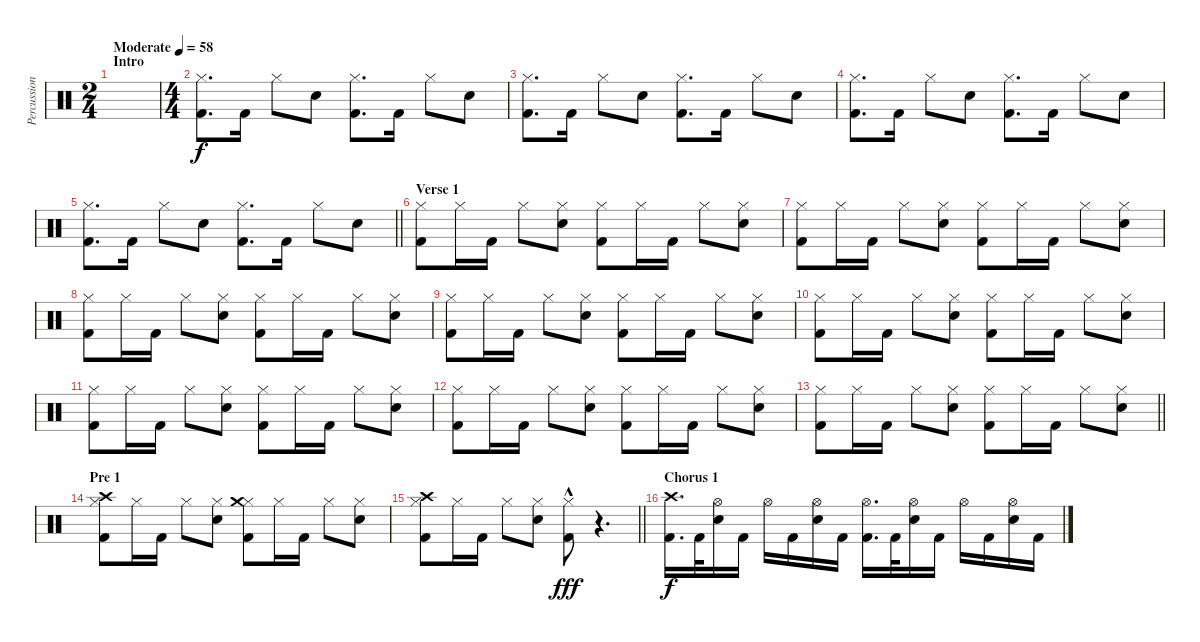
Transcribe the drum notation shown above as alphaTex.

\track ("Percussion 1" "Percussion") {instrument percussion}
\staff {score}
\articulation defaults
\ts (2 4)
\section ("" "Intro")
\tempo (58 "Moderate")
\clef neutral
\ks c
|
\ts (4 4)
("Hi-Hat (closed)" "Kick (hit) 2").8{d} "Kick (hit) 2".16 "Hi-Hat (closed)".8 "Snare (hit) 2".8 ("Hi-Hat (closed)" "Kick (hit) 2").8{d} "Kick (hit) 2".16 "Hi-Hat (closed)".8 "Snare (hit) 2".8 |
("Hi-Hat (closed)" "Kick (hit) 2").8{d} "Kick (hit) 2".16 "Hi-Hat (closed)".8 "Snare (hit) 2".8 ("Hi-Hat (closed)" "Kick (hit) 2").8{d} "Kick (hit) 2".16 "Hi-Hat (closed)".8 "Snare (hit) 2".8 |
("Hi-Hat (closed)" "Kick (hit) 2").8{d} "Kick (hit) 2".16 "Hi-Hat (closed)".8 "Snare (hit) 2".8 ("Hi-Hat (closed)" "Kick (hit) 2").8{d} "Kick (hit) 2".16 "Hi-Hat (closed)".8 "Snare (hit) 2".8 |
\barLineRight lightlight
("Hi-Hat (closed)" "Kick (hit) 2").8{d} "Kick (hit) 2".16 "Hi-Hat (closed)".8 "Snare (hit) 2".8 ("Hi-Hat (closed)" "Kick (hit) 2").8{d} "Kick (hit) 2".16 "Hi-Hat (closed)".8 "Snare (hit) 2".8 |
\section ("" "Verse 1")
("Hi-Hat (closed)" "Kick (hit) 2").8 "Hi-Hat (closed)".16 "Kick (hit) 2".16 "Hi-Hat (closed)".8 ("Hi-Hat (closed)" "Snare (hit) 2").8 ("Hi-Hat (closed)" "Kick (hit) 2").8 "Hi-Hat (closed)".16 "Kick (hit) 2".16 "Hi-Hat (closed)".8 ("Hi-Hat (closed)" "Snare (hit) 2").8 |
("Hi-Hat (closed)" "Kick (hit) 2").8 "Hi-Hat (closed)".16 "Kick (hit) 2".16 "Hi-Hat (closed)".8 ("Hi-Hat (closed)" "Snare (hit) 2").8 ("Hi-Hat (closed)" "Kick (hit) 2").8 "Hi-Hat (closed)".16 "Kick (hit) 2".16 "Hi-Hat (closed)".8 ("Hi-Hat (closed)" "Snare (hit) 2").8 |
("Hi-Hat (closed)" "Kick (hit) 2").8 "Hi-Hat (closed)".16 "Kick (hit) 2".16 "Hi-Hat (closed)".8 ("Hi-Hat (closed)" "Snare (hit) 2").8 ("Hi-Hat (closed)" "Kick (hit) 2").8 "Hi-Hat (closed)".16 "Kick (hit) 2".16 "Hi-Hat (closed)".8 ("Hi-Hat (closed)" "Snare (hit) 2").8 |
("Hi-Hat (closed)" "Kick (hit) 2").8 "Hi-Hat (closed)".16 "Kick (hit) 2".16 "Hi-Hat (closed)".8 ("Hi-Hat (closed)" "Snare (hit) 2").8 ("Hi-Hat (closed)" "Kick (hit) 2").8 "Hi-Hat (closed)".16 "Kick (hit) 2".16 "Hi-Hat (closed)".8 ("Hi-Hat (closed)" "Snare (hit) 2").8 |
("Hi-Hat (closed)" "Kick (hit) 2").8 "Hi-Hat (closed)".16 "Kick (hit) 2".16 "Hi-Hat (closed)".8 ("Hi-Hat (closed)" "Snare (hit) 2").8 ("Hi-Hat (closed)" "Kick (hit) 2").8 "Hi-Hat (closed)".16 "Kick (hit) 2".16 "Hi-Hat (closed)".8 ("Hi-Hat (closed)" "Snare (hit) 2").8 |
("Hi-Hat (closed)" "Kick (hit) 2").8 "Hi-Hat (closed)".16 "Kick (hit) 2".16 "Hi-Hat (closed)".8 ("Hi-Hat (closed)" "Snare (hit) 2").8 ("Hi-Hat (closed)" "Kick (hit) 2").8 "Hi-Hat (closed)".16 "Kick (hit) 2".16 "Hi-Hat (closed)".8 ("Hi-Hat (closed)" "Snare (hit) 2").8 |
("Hi-Hat (closed)" "Kick (hit) 2").8 "Hi-Hat (closed)".16 "Kick (hit) 2".16 "Hi-Hat (closed)".8 ("Hi-Hat (closed)" "Snare (hit) 2").8 ("Hi-Hat (closed)" "Kick (hit) 2").8 "Hi-Hat (closed)".16 "Kick (hit) 2".16 "Hi-Hat (closed)".8 ("Hi-Hat (closed)" "Snare (hit) 2").8 |
\barLineRight lightlight
("Hi-Hat (closed)" "Kick (hit) 2").8 "Hi-Hat (closed)".16 "Kick (hit) 2".16 "Hi-Hat (closed)".8 ("Hi-Hat (closed)" "Snare (hit) 2").8 ("Hi-Hat (closed)" "Kick (hit) 2").8 "Hi-Hat (closed)".16 "Kick (hit) 2".16 "Hi-Hat (closed)".8 ("Hi-Hat (closed)" "Snare (hit) 2").8 |
\section ("" "Pre 1")
("Hi-Hat (closed)" "Crash high (hit)" "Kick (hit) 2").8 "Hi-Hat (closed)".16 "Kick (hit) 2".16 "Hi-Hat (closed)".8 ("Hi-Hat (closed)" "Snare (hit) 2").8 ("Hi-Hat (closed)" "Crash medium (hit)" "Kick (hit) 2").8 "Hi-Hat (closed)".16 "Kick (hit) 2".16 "Hi-Hat (closed)".8 ("Hi-Hat (closed)" "Snare (hit) 2").8 |
\barLineRight lightlight
("Hi-Hat (closed)" "Crash high (hit)" "Kick (hit) 2").8 "Hi-Hat (closed)".16 "Kick (hit) 2".16 "Hi-Hat (closed)".8 ("Hi-Hat (closed)" "Snare (hit) 2").8 ("Hi-Hat (closed)"{hac} "Kick (hit) 2").8{dy fff} r.4{d} |
\section ("" "Chorus 1")
("Crash high (hit)" "Kick (hit) 2").16{d dy f} "Kick (hit) 2".32 ("Hi-Hat (open)" "Snare (hit) 2").16 "Kick (hit) 2".16 "Hi-Hat (open)".16 "Kick (hit) 2".16 ("Hi-Hat (open)" "Snare (hit) 2").16 "Kick (hit) 2".16 ("Hi-Hat (open)" "Kick (hit) 2").16{d} "Kick (hit) 2".32 ("Hi-Hat (open)" "Snare (hit) 2").16 "Kick (hit) 2".16 "Hi-Hat (open)".16 "Kick (hit) 2".16 ("Hi-Hat (open)" "Snare (hit) 2").16 "Kick (hit) 2".16
